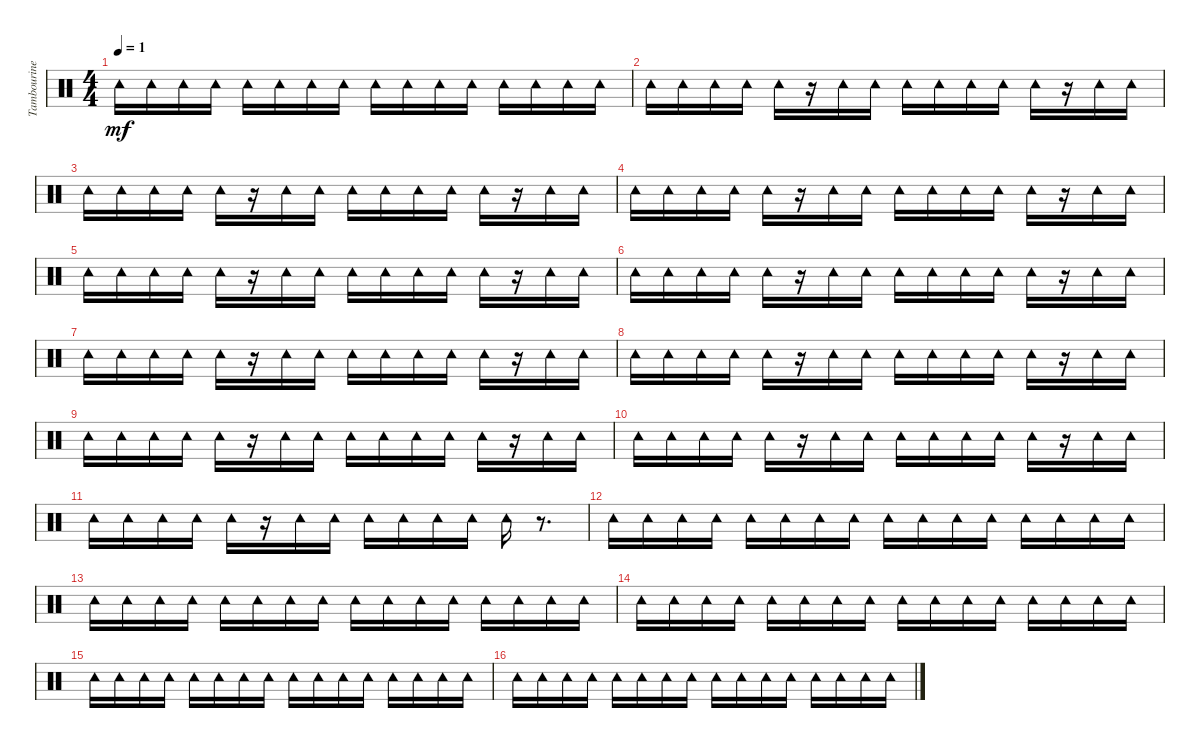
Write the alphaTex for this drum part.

\track ("Tambourine" "Tambourine") {instrument percussion}
\staff {score}
\articulation defaults
\ts (4 4)
\tempo 1
\clef neutral
\ks c "Tambourine (hit)".16{dy mf} "Tambourine (hit)".16 "Tambourine (hit)".16 "Tambourine (hit)".16 "Tambourine (hit)".16 "Tambourine (hit)".16 "Tambourine (hit)".16 "Tambourine (hit)".16 "Tambourine (hit)".16 "Tambourine (hit)".16 "Tambourine (hit)".16 "Tambourine (hit)".16 "Tambourine (hit)".16 "Tambourine (hit)".16 "Tambourine (hit)".16 "Tambourine (hit)".16
|
"Tambourine (hit)".16 "Tambourine (hit)".16 "Tambourine (hit)".16 "Tambourine (hit)".16 "Tambourine (hit)".16 r.16 "Tambourine (hit)".16 "Tambourine (hit)".16 "Tambourine (hit)".16 "Tambourine (hit)".16 "Tambourine (hit)".16 "Tambourine (hit)".16 "Tambourine (hit)".16 r.16 "Tambourine (hit)".16 "Tambourine (hit)".16 |
"Tambourine (hit)".16 "Tambourine (hit)".16 "Tambourine (hit)".16 "Tambourine (hit)".16 "Tambourine (hit)".16 r.16 "Tambourine (hit)".16 "Tambourine (hit)".16 "Tambourine (hit)".16 "Tambourine (hit)".16 "Tambourine (hit)".16 "Tambourine (hit)".16 "Tambourine (hit)".16 r.16 "Tambourine (hit)".16 "Tambourine (hit)".16 |
"Tambourine (hit)".16 "Tambourine (hit)".16 "Tambourine (hit)".16 "Tambourine (hit)".16 "Tambourine (hit)".16 r.16 "Tambourine (hit)".16 "Tambourine (hit)".16 "Tambourine (hit)".16 "Tambourine (hit)".16 "Tambourine (hit)".16 "Tambourine (hit)".16 "Tambourine (hit)".16 r.16 "Tambourine (hit)".16 "Tambourine (hit)".16 |
"Tambourine (hit)".16 "Tambourine (hit)".16 "Tambourine (hit)".16 "Tambourine (hit)".16 "Tambourine (hit)".16 r.16 "Tambourine (hit)".16 "Tambourine (hit)".16 "Tambourine (hit)".16 "Tambourine (hit)".16 "Tambourine (hit)".16 "Tambourine (hit)".16 "Tambourine (hit)".16 r.16 "Tambourine (hit)".16 "Tambourine (hit)".16 |
"Tambourine (hit)".16 "Tambourine (hit)".16 "Tambourine (hit)".16 "Tambourine (hit)".16 "Tambourine (hit)".16 r.16 "Tambourine (hit)".16 "Tambourine (hit)".16 "Tambourine (hit)".16 "Tambourine (hit)".16 "Tambourine (hit)".16 "Tambourine (hit)".16 "Tambourine (hit)".16 r.16 "Tambourine (hit)".16 "Tambourine (hit)".16 |
"Tambourine (hit)".16 "Tambourine (hit)".16 "Tambourine (hit)".16 "Tambourine (hit)".16 "Tambourine (hit)".16 r.16 "Tambourine (hit)".16 "Tambourine (hit)".16 "Tambourine (hit)".16 "Tambourine (hit)".16 "Tambourine (hit)".16 "Tambourine (hit)".16 "Tambourine (hit)".16 r.16 "Tambourine (hit)".16 "Tambourine (hit)".16 |
"Tambourine (hit)".16 "Tambourine (hit)".16 "Tambourine (hit)".16 "Tambourine (hit)".16 "Tambourine (hit)".16 r.16 "Tambourine (hit)".16 "Tambourine (hit)".16 "Tambourine (hit)".16 "Tambourine (hit)".16 "Tambourine (hit)".16 "Tambourine (hit)".16 "Tambourine (hit)".16 r.16 "Tambourine (hit)".16 "Tambourine (hit)".16 |
"Tambourine (hit)".16 "Tambourine (hit)".16 "Tambourine (hit)".16 "Tambourine (hit)".16 "Tambourine (hit)".16 r.16 "Tambourine (hit)".16 "Tambourine (hit)".16 "Tambourine (hit)".16 "Tambourine (hit)".16 "Tambourine (hit)".16 "Tambourine (hit)".16 "Tambourine (hit)".16 r.16 "Tambourine (hit)".16 "Tambourine (hit)".16 |
"Tambourine (hit)".16 "Tambourine (hit)".16 "Tambourine (hit)".16 "Tambourine (hit)".16 "Tambourine (hit)".16 r.16 "Tambourine (hit)".16 "Tambourine (hit)".16 "Tambourine (hit)".16 "Tambourine (hit)".16 "Tambourine (hit)".16 "Tambourine (hit)".16 "Tambourine (hit)".16 r.16 "Tambourine (hit)".16 "Tambourine (hit)".16 |
"Tambourine (hit)".16 "Tambourine (hit)".16 "Tambourine (hit)".16 "Tambourine (hit)".16 "Tambourine (hit)".16 r.16 "Tambourine (hit)".16 "Tambourine (hit)".16 "Tambourine (hit)".16 "Tambourine (hit)".16 "Tambourine (hit)".16 "Tambourine (hit)".16 "Tambourine (hit)".16 r.8{d} |
"Tambourine (hit)".16 "Tambourine (hit)".16 "Tambourine (hit)".16 "Tambourine (hit)".16 "Tambourine (hit)".16 "Tambourine (hit)".16 "Tambourine (hit)".16 "Tambourine (hit)".16 "Tambourine (hit)".16 "Tambourine (hit)".16 "Tambourine (hit)".16 "Tambourine (hit)".16 "Tambourine (hit)".16 "Tambourine (hit)".16 "Tambourine (hit)".16 "Tambourine (hit)".16 |
"Tambourine (hit)".16 "Tambourine (hit)".16 "Tambourine (hit)".16 "Tambourine (hit)".16 "Tambourine (hit)".16 "Tambourine (hit)".16 "Tambourine (hit)".16 "Tambourine (hit)".16 "Tambourine (hit)".16 "Tambourine (hit)".16 "Tambourine (hit)".16 "Tambourine (hit)".16 "Tambourine (hit)".16 "Tambourine (hit)".16 "Tambourine (hit)".16 "Tambourine (hit)".16 |
"Tambourine (hit)".16 "Tambourine (hit)".16 "Tambourine (hit)".16 "Tambourine (hit)".16 "Tambourine (hit)".16 "Tambourine (hit)".16 "Tambourine (hit)".16 "Tambourine (hit)".16 "Tambourine (hit)".16 "Tambourine (hit)".16 "Tambourine (hit)".16 "Tambourine (hit)".16 "Tambourine (hit)".16 "Tambourine (hit)".16 "Tambourine (hit)".16 "Tambourine (hit)".16 |
"Tambourine (hit)".16 "Tambourine (hit)".16 "Tambourine (hit)".16 "Tambourine (hit)".16 "Tambourine (hit)".16 "Tambourine (hit)".16 "Tambourine (hit)".16 "Tambourine (hit)".16 "Tambourine (hit)".16 "Tambourine (hit)".16 "Tambourine (hit)".16 "Tambourine (hit)".16 "Tambourine (hit)".16 "Tambourine (hit)".16 "Tambourine (hit)".16 "Tambourine (hit)".16 |
"Tambourine (hit)".16 "Tambourine (hit)".16 "Tambourine (hit)".16 "Tambourine (hit)".16 "Tambourine (hit)".16 "Tambourine (hit)".16 "Tambourine (hit)".16 "Tambourine (hit)".16 "Tambourine (hit)".16 "Tambourine (hit)".16 "Tambourine (hit)".16 "Tambourine (hit)".16 "Tambourine (hit)".16 "Tambourine (hit)".16 "Tambourine (hit)".16 "Tambourine (hit)".16
